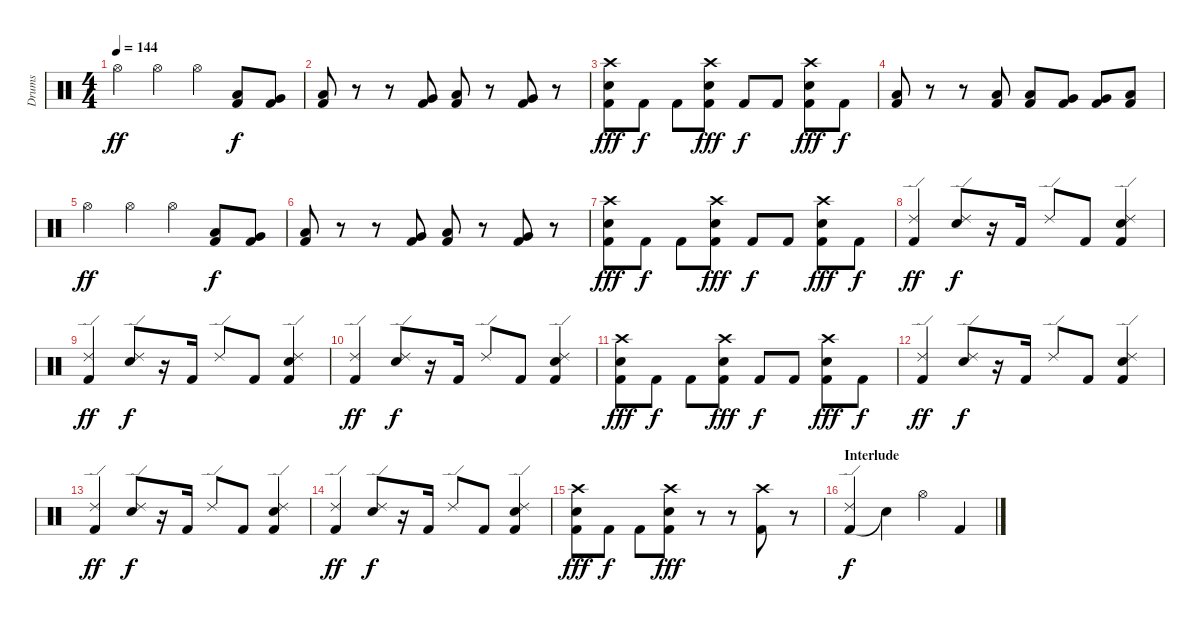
\track ("Drums" "Drums") {instrument percussion}
\staff {score}
\articulation defaults
\ts (4 4)
\tempo 144
\clef neutral
\ks c "Hi-Hat (open)".4{dy ff} "Hi-Hat (open)".4 "Hi-Hat (open)".4
("Kick (hit) 2" "Low Tom (hit)").8{dy f} ("Kick (hit) 2" "Very Low Tom (hit)").8 |
("Kick (hit) 2" "Low Floor Tom (hit)").8 r.8 r.8 ("Kick (hit) 2" "Very Low Tom (hit)").8 ("Kick (hit) 2" "Low Tom (hit)").8 r.8 ("Kick (hit) 2" "Very Low Tom (hit)").8 r.8 |
("Kick (hit) 2" "Electric Snare (hit)" "Crash high (hit)").8{dy fff} "Kick (hit) 2".8{dy f} "Kick (hit) 2".8 ("Kick (hit) 2" "Electric Snare (hit)" "Crash high (hit)").8{dy fff} "Kick (hit) 2".8{dy f} "Kick (hit) 2".8 ("Kick (hit) 2" "Electric Snare (hit)" "Crash high (hit)").8{dy fff} "Kick (hit) 2".8{dy f} |
("Kick (hit) 2" "Low Tom (hit)").8 r.8 r.8 ("Kick (hit) 2" "Low Tom (hit)").8 ("Kick (hit) 2" "Low Tom (hit)").8 ("Kick (hit) 2" "Very Low Tom (hit)").8 ("Kick (hit) 2" "Very Low Tom (hit)").8 ("Kick (hit) 2" "Low Floor Tom (hit)").8 |
"Hi-Hat (open)".4{dy ff} "Hi-Hat (open)".4 "Hi-Hat (open)".4 ("Kick (hit) 2" "Low Tom (hit)").8{dy f} ("Kick (hit) 2" "Very Low Tom (hit)").8 |
("Kick (hit) 2" "Low Floor Tom (hit)").8 r.8 r.8 ("Kick (hit) 2" "Very Low Tom (hit)").8 ("Kick (hit) 2" "Low Tom (hit)").8 r.8 ("Kick (hit) 2" "Very Low Tom (hit)").8 r.8 |
("Kick (hit) 2" "Electric Snare (hit)" "Crash high (hit)").8{dy fff} "Kick (hit) 2".8{dy f} "Kick (hit) 2".8 ("Kick (hit) 2" "Electric Snare (hit)" "Crash high (hit)").8{dy fff} "Kick (hit) 2".8{dy f} "Kick (hit) 2".8 ("Kick (hit) 2" "Electric Snare (hit)" "Crash high (hit)").8{dy fff} "Kick (hit) 2".8{dy f} |
("Kick (hit) 2" "Ride (edge) 2").4{dy ff} ("Ride (edge) 2" "Electric Snare (hit)").8{dy f} r.16 "Kick (hit) 2".16 "Ride (edge) 2".8 "Kick (hit) 2".8 ("Kick (hit) 2" "Ride (edge) 2" "Electric Snare (hit)").4 |
("Kick (hit) 2" "Ride (edge) 2").4{dy ff} ("Ride (edge) 2" "Electric Snare (hit)").8{dy f} r.16 "Kick (hit) 2".16 "Ride (edge) 2".8 "Kick (hit) 2".8 ("Kick (hit) 2" "Ride (edge) 2" "Electric Snare (hit)").4 |
("Kick (hit) 2" "Ride (edge) 2").4{dy ff} ("Ride (edge) 2" "Electric Snare (hit)").8{dy f} r.16 "Kick (hit) 2".16 "Ride (edge) 2".8 "Kick (hit) 2".8 ("Kick (hit) 2" "Ride (edge) 2" "Electric Snare (hit)").4 |
("Kick (hit) 2" "Electric Snare (hit)" "Crash high (hit)").8{dy fff} "Kick (hit) 2".8{dy f} "Kick (hit) 2".8 ("Kick (hit) 2" "Electric Snare (hit)" "Crash high (hit)").8{dy fff} "Kick (hit) 2".8{dy f} "Kick (hit) 2".8 ("Kick (hit) 2" "Electric Snare (hit)" "Crash high (hit)").8{dy fff} "Kick (hit) 2".8{dy f} |
("Kick (hit) 2" "Ride (edge) 2").4{dy ff} ("Ride (edge) 2" "Electric Snare (hit)").8{dy f} r.16 "Kick (hit) 2".16 "Ride (edge) 2".8 "Kick (hit) 2".8 ("Kick (hit) 2" "Ride (edge) 2" "Electric Snare (hit)").4 |
("Kick (hit) 2" "Ride (edge) 2").4{dy ff} ("Ride (edge) 2" "Electric Snare (hit)").8{dy f} r.16 "Kick (hit) 2".16 "Ride (edge) 2".8 "Kick (hit) 2".8 ("Kick (hit) 2" "Ride (edge) 2" "Electric Snare (hit)").4 |
("Kick (hit) 2" "Ride (edge) 2").4{dy ff} ("Ride (edge) 2" "Electric Snare (hit)").8{dy f} r.16 "Kick (hit) 2".16 "Ride (edge) 2".8 "Kick (hit) 2".8 ("Kick (hit) 2" "Ride (edge) 2" "Electric Snare (hit)").4 |
("Kick (hit) 2" "Electric Snare (hit)" "Crash high (hit)").8{dy fff} "Kick (hit) 2".8{dy f} "Kick (hit) 2".8 ("Kick (hit) 2" "Electric Snare (hit)" "Crash high (hit)").8{dy fff} r.8 r.8 ("Kick (hit) 2" "Crash high (hit)").8 r.8 |
\section ("" "Interlude")
("Kick (hit) 2" "Ride (edge) 2").4{dy f} "Snare (hit)"{t}.4 "Hi-Hat (open)".4 "Kick (hit) 2".4
